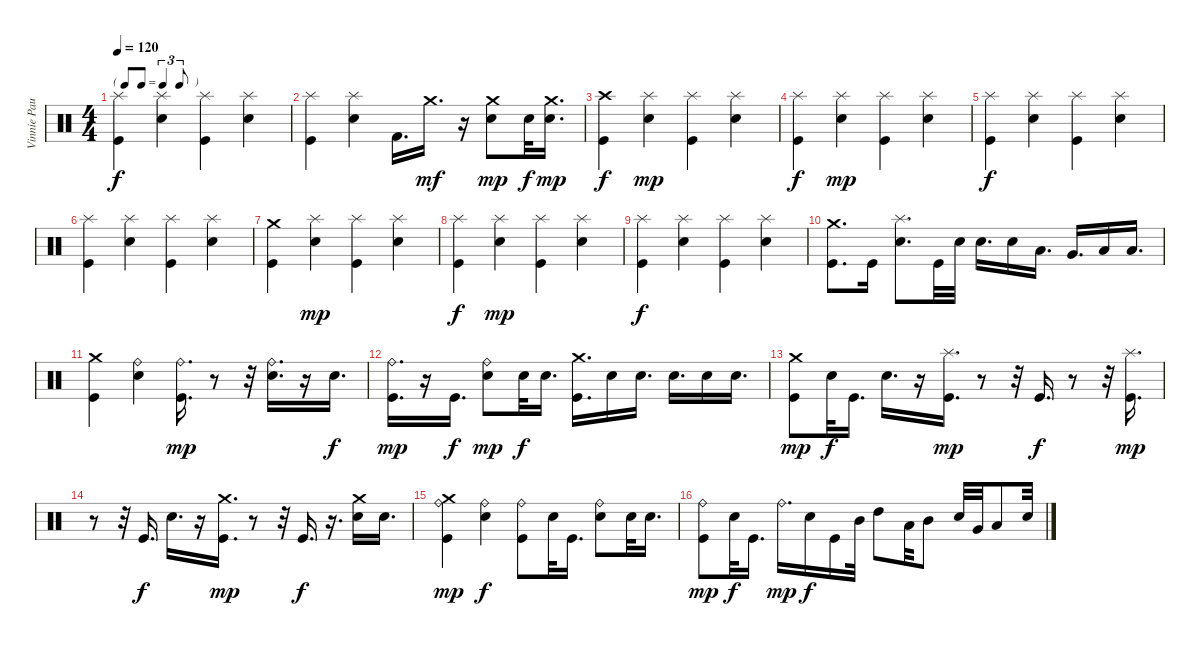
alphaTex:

\track ("Vinnie Paul" "Vinnie Pau") {instrument percussion}
\staff {score}
\articulation defaults
\ts (4 4)
\tf triplet8th
\tempo 120
\clef neutral
\ks c
("Kick (hit)" "Splash (hit)").4{dy f} ("Snare (hit) 2" "Splash (hit)").4 ("Kick (hit)" "Splash (hit)").4 ("Snare (hit) 2" "Splash (hit)").4 |
("Kick (hit)" "Splash (hit)").4 ("Snare (hit) 2" "Splash (hit)").4 "Kick (hit) 2".16{d} "Crash medium (hit)".16{d dy mf} r.16 ("Crash medium (hit)" "Snare (hit) 2").8{dy mp} "Snare (hit)".32{dy f} ("Crash medium (hit)" "Snare (hit) 2").16{d dy mp} |
("Kick (hit)" "Crash high (hit)").4{dy f} ("Splash (hit)" "Snare (hit) 2").4{dy mp} ("Splash (hit)" "Kick (hit)").4 ("Splash (hit)" "Snare (hit) 2").4 |
("Kick (hit)" "Splash (hit)").4{dy f} ("Splash (hit)" "Snare (hit) 2").4{dy mp} ("Splash (hit)" "Kick (hit)").4 ("Splash (hit)" "Snare (hit) 2").4 |
("Kick (hit)" "Splash (hit)").4{dy f} ("Snare (hit) 2" "Splash (hit)").4 ("Kick (hit)" "Splash (hit)").4 ("Snare (hit) 2" "Splash (hit)").4 |
("Kick (hit)" "Splash (hit)").4 ("Snare (hit) 2" "Splash (hit)").4 ("Kick (hit)" "Splash (hit)").4 ("Snare (hit) 2" "Splash (hit)").4 |
("Kick (hit)" "Crash medium (hit)").4 ("Splash (hit)" "Snare (hit) 2").4{dy mp} ("Splash (hit)" "Kick (hit)").4 ("Splash (hit)" "Snare (hit) 2").4 |
("Kick (hit)" "Splash (hit)").4{dy f} ("Splash (hit)" "Snare (hit) 2").4{dy mp} ("Splash (hit)" "Kick (hit)").4 ("Splash (hit)" "Snare (hit) 2").4 |
("Kick (hit)" "Splash (hit)").4{dy f} ("Snare (hit) 2" "Splash (hit)").4 ("Kick (hit)" "Splash (hit)").4 ("Snare (hit) 2" "Splash (hit)").4 |
("Kick (hit)" "Crash medium (hit)").8{d} "Kick (hit)".16 ("Snare (hit) 2" "Splash (hit)").8{d} "Kick (hit)".32 "Snare (hit) 2".32 "Snare (hit) 2".16{d} "Snare (hit) 2".16 "Low Tom (hit)".16{d} "Very Low Tom (hit)".16{d} "Low Floor Tom (hit)".16 "Low Floor Tom (hit)".16{d} |
("Kick (hit)" "Crash medium (hit)").4 ("Snare (hit) 2" "Ride (bell)").4 ("Ride (bell)" "Kick (hit)").16{d dy mp} r.8 r.32 ("Ride (bell)" "Snare (hit) 2").16{d} r.16 "Snare (hit) 2".16{d dy f} |
("Ride (bell)" "Kick (hit)").16{d dy mp} r.16 "Kick (hit)".16{d dy f} ("Ride (bell)" "Snare (hit) 2").8{dy mp} "Snare (hit)".32{dy f} "Snare (hit) 2".16{d} ("Kick (hit)" "Crash medium (hit)").16{d} "Snare (hit) 2".16 "Snare (hit) 2".16{d} "Snare (hit) 2".16{d} "Snare (hit) 2".16 "Snare (hit) 2".16{d} |
("Crash medium (hit)" "Kick (hit)").8{dy mp} "Snare (hit)".32{dy f} "Kick (hit)".16{d} "Snare (hit) 2".16{d} r.16 ("Splash (hit)" "Kick (hit)").16{d dy mp} r.8 r.32 "Kick (hit)".16{d dy f} r.8 r.32 ("Splash (hit)" "Kick (hit)").16{d dy mp} |
r.8 r.32 "Kick (hit)".16{d dy f} "Snare (hit) 2".16{d} r.16 ("Crash medium (hit)" "Kick (hit)").16{d dy mp} r.8 r.32 "Kick (hit)".16{d dy f} r.16{d} ("Snare (hit) 2" "Crash medium (hit)").16 "Snare (hit) 2".16{d} |
("Crash medium (hit)" "Kick (hit)" "Ride (bell)").4{dy mp} ("Snare (hit) 2" "Ride (bell)").4{dy f} ("Kick (hit)" "Ride (bell)").8 "Snare (hit)".32 "Kick (hit)".16{d} ("Snare (hit) 2" "Ride (bell)").8 "Snare (hit)".32 "Snare (hit) 2".16{d} |
("Ride (bell)" "Kick (hit)").8{dy mp} "Snare (hit)".32{dy f} "Kick (hit)".16{d} "Ride (bell)".16{d dy mp} "Snare (hit) 2".16{dy f} "Kick (hit)".16 "Mid Tom (hit)".32 "High Tom (hit)".8 "Low Tom (hit)".32 "Mid Tom (hit)".8 "Snare (hit)".32 "Very Low Tom (hit)".32 "Low Tom (hit)".8 "Snare (hit)".32
